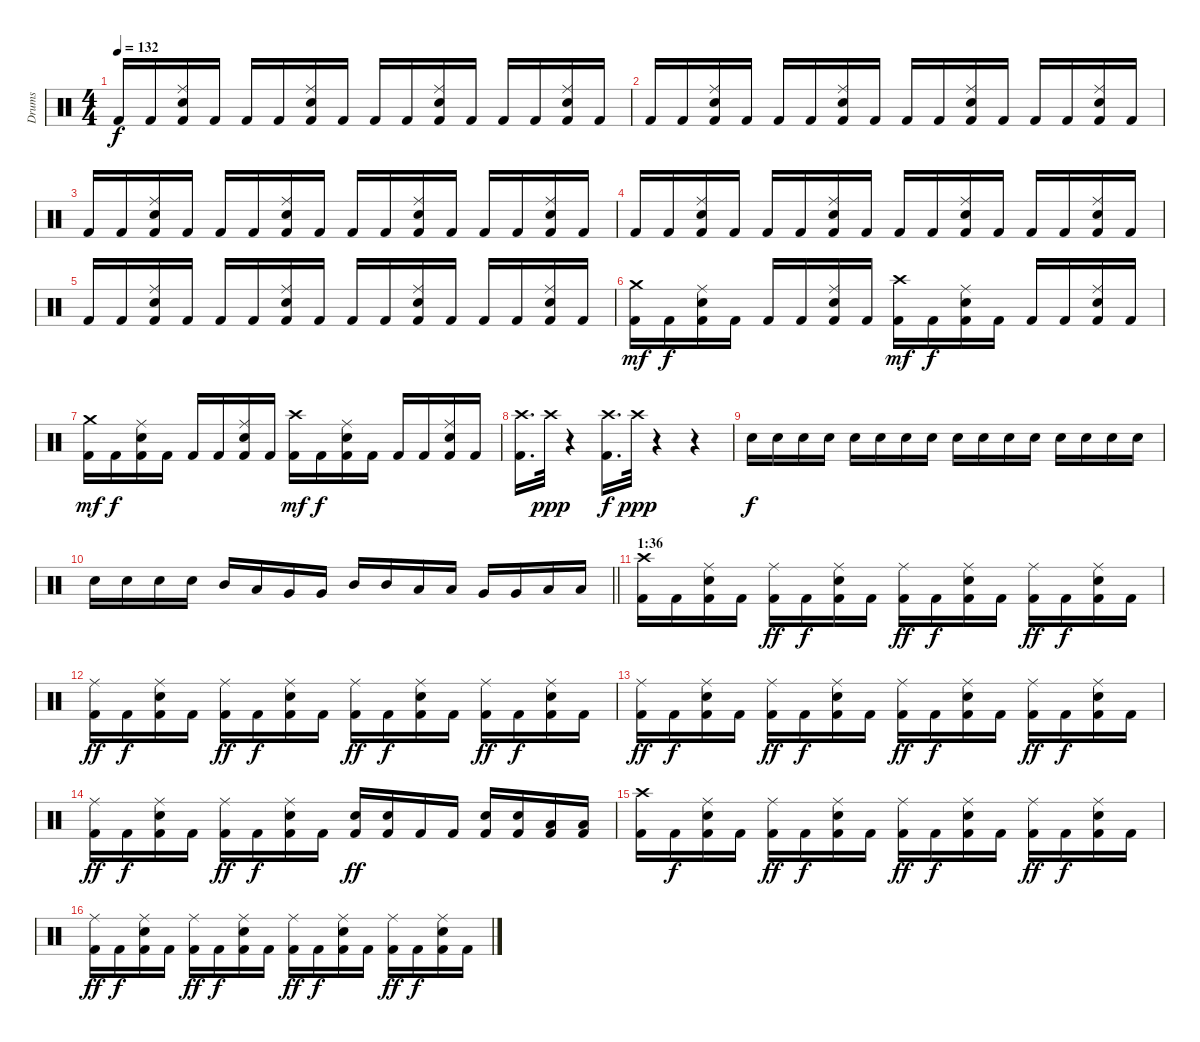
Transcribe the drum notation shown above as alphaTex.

\track ("Drums" "Drums") {instrument percussion}
\staff {score}
\articulation defaults
\ts (4 4)
\tempo 132
\clef neutral
\ks c "Kick (hit) 2".16{dy f} "Kick (hit) 2".16
("Ride (middle)" "Snare (hit) 2" "Kick (hit) 2").16 "Kick (hit) 2".16 "Kick (hit) 2".16 "Kick (hit) 2".16 ("Ride (middle)" "Snare (hit) 2" "Kick (hit) 2").16 "Kick (hit) 2".16 "Kick (hit) 2".16 "Kick (hit) 2".16 ("Ride (middle)" "Snare (hit) 2" "Kick (hit) 2").16 "Kick (hit) 2".16 "Kick (hit) 2".16 "Kick (hit) 2".16 ("Ride (middle)" "Snare (hit) 2" "Kick (hit) 2").16 "Kick (hit) 2".16 |
"Kick (hit) 2".16 "Kick (hit) 2".16 ("Ride (middle)" "Snare (hit) 2" "Kick (hit) 2").16 "Kick (hit) 2".16 "Kick (hit) 2".16 "Kick (hit) 2".16 ("Ride (middle)" "Snare (hit) 2" "Kick (hit) 2").16 "Kick (hit) 2".16 "Kick (hit) 2".16 "Kick (hit) 2".16 ("Ride (middle)" "Snare (hit) 2" "Kick (hit) 2").16 "Kick (hit) 2".16 "Kick (hit) 2".16 "Kick (hit) 2".16 ("Ride (middle)" "Snare (hit) 2" "Kick (hit) 2").16 "Kick (hit) 2".16 |
"Kick (hit) 2".16 "Kick (hit) 2".16 ("Ride (middle)" "Snare (hit) 2" "Kick (hit) 2").16 "Kick (hit) 2".16 "Kick (hit) 2".16 "Kick (hit) 2".16 ("Ride (middle)" "Snare (hit) 2" "Kick (hit) 2").16 "Kick (hit) 2".16 "Kick (hit) 2".16 "Kick (hit) 2".16 ("Ride (middle)" "Snare (hit) 2" "Kick (hit) 2").16 "Kick (hit) 2".16 "Kick (hit) 2".16 "Kick (hit) 2".16 ("Ride (middle)" "Snare (hit) 2" "Kick (hit) 2").16 "Kick (hit) 2".16 |
"Kick (hit) 2".16 "Kick (hit) 2".16 ("Ride (middle)" "Snare (hit) 2" "Kick (hit) 2").16 "Kick (hit) 2".16 "Kick (hit) 2".16 "Kick (hit) 2".16 ("Ride (middle)" "Snare (hit) 2" "Kick (hit) 2").16 "Kick (hit) 2".16 "Kick (hit) 2".16 "Kick (hit) 2".16 ("Ride (middle)" "Snare (hit) 2" "Kick (hit) 2").16 "Kick (hit) 2".16 "Kick (hit) 2".16 "Kick (hit) 2".16 ("Ride (middle)" "Snare (hit) 2" "Kick (hit) 2").16 "Kick (hit) 2".16 |
"Kick (hit) 2".16 "Kick (hit) 2".16 ("Ride (middle)" "Snare (hit) 2" "Kick (hit) 2").16 "Kick (hit) 2".16 "Kick (hit) 2".16 "Kick (hit) 2".16 ("Ride (middle)" "Snare (hit) 2" "Kick (hit) 2").16 "Kick (hit) 2".16 "Kick (hit) 2".16 "Kick (hit) 2".16 ("Ride (middle)" "Snare (hit) 2" "Kick (hit) 2").16 "Kick (hit) 2".16 "Kick (hit) 2".16 "Kick (hit) 2".16 ("Ride (middle)" "Snare (hit) 2" "Kick (hit) 2").16 "Kick (hit) 2".16 |
("Crash medium (hit)" "Kick (hit) 2").16{dy mf} "Kick (hit) 2".16{dy f} ("Ride (middle)" "Snare (hit) 2" "Kick (hit) 2").16 "Kick (hit) 2".16 "Kick (hit) 2".16 "Kick (hit) 2".16 ("Ride (middle)" "Snare (hit) 2" "Kick (hit) 2").16 "Kick (hit) 2".16 ("Crash high (hit)" "Kick (hit) 2").16{dy mf} "Kick (hit) 2".16{dy f} ("Ride (middle)" "Snare (hit) 2" "Kick (hit) 2").16 "Kick (hit) 2".16 "Kick (hit) 2".16 "Kick (hit) 2".16 ("Ride (middle)" "Snare (hit) 2" "Kick (hit) 2").16 "Kick (hit) 2".16 |
("Crash medium (hit)" "Kick (hit) 2").16{dy mf} "Kick (hit) 2".16{dy f} ("Ride (middle)" "Snare (hit) 2" "Kick (hit) 2").16 "Kick (hit) 2".16 "Kick (hit) 2".16 "Kick (hit) 2".16 ("Ride (middle)" "Snare (hit) 2" "Kick (hit) 2").16 "Kick (hit) 2".16 ("Crash high (hit)" "Kick (hit) 2").16{dy mf} "Kick (hit) 2".16{dy f} ("Ride (middle)" "Snare (hit) 2" "Kick (hit) 2").16 "Kick (hit) 2".16 "Kick (hit) 2".16 "Kick (hit) 2".16 ("Ride (middle)" "Snare (hit) 2" "Kick (hit) 2").16 "Kick (hit) 2".16 |
("Crash high (hit)" "Kick (hit) 2").16{d} "Crash high (hit)".32{dy ppp} r.4 ("Crash high (hit)" "Kick (hit) 2").16{d dy f} "Crash high (hit)".32{dy ppp} r.4 r.4 |
"Snare (hit) 2".16{dy f} "Snare (hit) 2".16 "Snare (hit) 2".16 "Snare (hit) 2".16 "Snare (hit) 2".16 "Snare (hit) 2".16 "Snare (hit) 2".16 "Snare (hit) 2".16 "Snare (hit) 2".16 "Snare (hit) 2".16 "Snare (hit) 2".16 "Snare (hit) 2".16 "Snare (hit) 2".16 "Snare (hit) 2".16 "Snare (hit) 2".16 "Snare (hit) 2".16 |
\barLineRight lightlight "Snare (hit) 2".16 "Snare (hit) 2".16 "Snare (hit) 2".16 "Snare (hit) 2".16 "Mid Tom (hit)".16 "Low Tom (hit)".16 "Very Low Tom (hit)".16 "Very Low Tom (hit)".16 "Mid Tom (hit)".16 "Mid Tom (hit)".16 "Low Tom (hit)".16 "Low Tom (hit)".16 "Very Low Tom (hit)".16 "Very Low Tom (hit)".16 "Low Floor Tom (hit)".16 "Low Floor Tom (hit)".16
|
\section ("" "1:36")
("Crash high (hit)" "Kick (hit) 2").16 "Kick (hit) 2".16 ("Ride (middle)" "Snare (hit) 2" "Kick (hit) 2").16 "Kick (hit) 2".16 ("Ride (middle)" "Kick (hit) 2").16{dy ff} "Kick (hit) 2".16{dy f} ("Ride (middle)" "Snare (hit) 2" "Kick (hit) 2").16 "Kick (hit) 2".16 ("Ride (middle)" "Kick (hit) 2").16{dy ff} "Kick (hit) 2".16{dy f} ("Ride (middle)" "Snare (hit) 2" "Kick (hit) 2").16 "Kick (hit) 2".16 ("Ride (middle)" "Kick (hit) 2").16{dy ff} "Kick (hit) 2".16{dy f} ("Ride (middle)" "Snare (hit) 2" "Kick (hit) 2").16 "Kick (hit) 2".16 |
("Ride (middle)" "Kick (hit) 2").16{dy ff} "Kick (hit) 2".16{dy f} ("Ride (middle)" "Snare (hit) 2" "Kick (hit) 2").16 "Kick (hit) 2".16 ("Ride (middle)" "Kick (hit) 2").16{dy ff} "Kick (hit) 2".16{dy f} ("Ride (middle)" "Snare (hit) 2" "Kick (hit) 2").16 "Kick (hit) 2".16 ("Ride (middle)" "Kick (hit) 2").16{dy ff} "Kick (hit) 2".16{dy f} ("Ride (middle)" "Snare (hit) 2" "Kick (hit) 2").16 "Kick (hit) 2".16 ("Ride (middle)" "Kick (hit) 2").16{dy ff} "Kick (hit) 2".16{dy f} ("Ride (middle)" "Snare (hit) 2" "Kick (hit) 2").16 "Kick (hit) 2".16 |
("Ride (middle)" "Kick (hit) 2").16{dy ff} "Kick (hit) 2".16{dy f} ("Ride (middle)" "Snare (hit) 2" "Kick (hit) 2").16 "Kick (hit) 2".16 ("Ride (middle)" "Kick (hit) 2").16{dy ff} "Kick (hit) 2".16{dy f} ("Ride (middle)" "Snare (hit) 2" "Kick (hit) 2").16 "Kick (hit) 2".16 ("Ride (middle)" "Kick (hit) 2").16{dy ff} "Kick (hit) 2".16{dy f} ("Ride (middle)" "Snare (hit) 2" "Kick (hit) 2").16 "Kick (hit) 2".16 ("Ride (middle)" "Kick (hit) 2").16{dy ff} "Kick (hit) 2".16{dy f} ("Ride (middle)" "Snare (hit) 2" "Kick (hit) 2").16 "Kick (hit) 2".16 |
("Ride (middle)" "Kick (hit) 2").16{dy ff} "Kick (hit) 2".16{dy f} ("Ride (middle)" "Snare (hit) 2" "Kick (hit) 2").16 "Kick (hit) 2".16 ("Ride (middle)" "Kick (hit) 2").16{dy ff} "Kick (hit) 2".16{dy f} ("Ride (middle)" "Snare (hit) 2" "Kick (hit) 2").16 "Kick (hit) 2".16 ("Snare (hit) 2" "Kick (hit) 2").16{dy ff} ("Snare (hit) 2" "Kick (hit) 2").16 "Kick (hit) 2".16 "Kick (hit) 2".16 ("Snare (hit) 2" "Kick (hit) 2").16 ("Snare (hit) 2" "Kick (hit) 2").16 ("Low Tom (hit)" "Kick (hit) 2").16 ("Low Tom (hit)" "Kick (hit) 2").16 |
("Crash high (hit)" "Kick (hit) 2").16 "Kick (hit) 2".16{dy f} ("Ride (middle)" "Snare (hit) 2" "Kick (hit) 2").16 "Kick (hit) 2".16 ("Ride (middle)" "Kick (hit) 2").16{dy ff} "Kick (hit) 2".16{dy f} ("Ride (middle)" "Snare (hit) 2" "Kick (hit) 2").16 "Kick (hit) 2".16 ("Ride (middle)" "Kick (hit) 2").16{dy ff} "Kick (hit) 2".16{dy f} ("Ride (middle)" "Snare (hit) 2" "Kick (hit) 2").16 "Kick (hit) 2".16 ("Ride (middle)" "Kick (hit) 2").16{dy ff} "Kick (hit) 2".16{dy f} ("Ride (middle)" "Snare (hit) 2" "Kick (hit) 2").16 "Kick (hit) 2".16 |
("Ride (middle)" "Kick (hit) 2").16{dy ff} "Kick (hit) 2".16{dy f} ("Ride (middle)" "Snare (hit) 2" "Kick (hit) 2").16 "Kick (hit) 2".16 ("Ride (middle)" "Kick (hit) 2").16{dy ff} "Kick (hit) 2".16{dy f} ("Ride (middle)" "Snare (hit) 2" "Kick (hit) 2").16 "Kick (hit) 2".16 ("Ride (middle)" "Kick (hit) 2").16{dy ff} "Kick (hit) 2".16{dy f} ("Ride (middle)" "Snare (hit) 2" "Kick (hit) 2").16 "Kick (hit) 2".16 ("Ride (middle)" "Kick (hit) 2").16{dy ff} "Kick (hit) 2".16{dy f} ("Ride (middle)" "Snare (hit) 2" "Kick (hit) 2").16 "Kick (hit) 2".16
